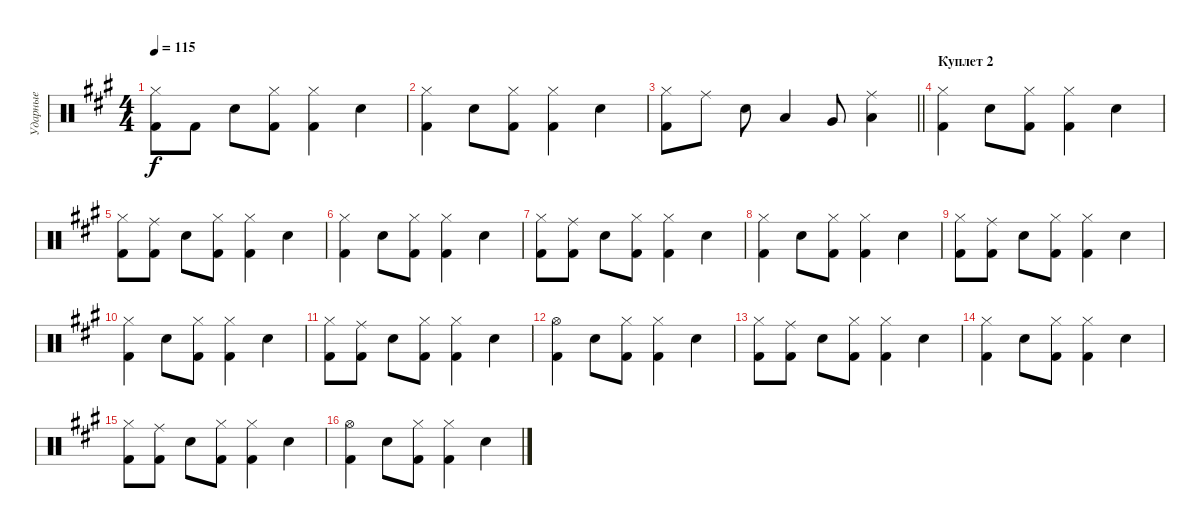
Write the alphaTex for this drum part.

\track ("Ударные" "Ударные") {instrument percussion}
\staff {score}
\articulation defaults
\ts (4 4)
\tempo 115
\clef neutral
\ks f#minor
("Hi-Hat (closed)" "Kick (hit) 2").8{dy f} "Kick (hit) 2".8 "Snare (hit) 2".8 ("Hi-Hat (closed)" "Kick (hit) 2").8{volume 12} ("Hi-Hat (closed)" "Kick (hit) 2").4{volume 11} "Snare (hit) 2".4 |
("Hi-Hat (closed)" "Kick (hit) 2").4 "Snare (hit) 2".8 ("Hi-Hat (closed)" "Kick (hit) 2").8{volume 12} ("Hi-Hat (closed)" "Kick (hit) 2").4{volume 11} "Snare (hit) 2".4 |
\barLineRight lightlight
("Hi-Hat (closed)" "Kick (hit) 2").8 "Ride (middle)".8 "Snare (hit) 2".8 "Low Tom (hit)".4{volume 12} "Very Low Tom (hit)".8{volume 11} ("Ride (middle)" "Low Floor Tom (hit)").4 |
\section ("" "Куплет 2")
("Hi-Hat (closed)" "Kick (hit) 2").4 "Snare (hit) 2".8 ("Hi-Hat (closed)" "Kick (hit) 2").8{volume 12} ("Hi-Hat (closed)" "Kick (hit) 2").4{volume 11} "Snare (hit) 2".4 |
("Hi-Hat (closed)" "Kick (hit) 2").8 ("Ride (middle)" "Kick (hit) 2").8 "Snare (hit) 2".8 ("Hi-Hat (closed)" "Kick (hit) 2").8{volume 12} ("Hi-Hat (closed)" "Kick (hit) 2").4{volume 11} "Snare (hit) 2".4 |
("Hi-Hat (closed)" "Kick (hit) 2").4 "Snare (hit) 2".8 ("Hi-Hat (closed)" "Kick (hit) 2").8{volume 12} ("Hi-Hat (closed)" "Kick (hit) 2").4{volume 11} "Snare (hit) 2".4 |
("Hi-Hat (closed)" "Kick (hit) 2").8 ("Ride (middle)" "Kick (hit) 2").8 "Snare (hit) 2".8 ("Hi-Hat (closed)" "Kick (hit) 2").8{volume 12} ("Hi-Hat (closed)" "Kick (hit) 2").4{volume 11} "Snare (hit) 2".4 |
("Hi-Hat (closed)" "Kick (hit) 2").4 "Snare (hit) 2".8 ("Hi-Hat (closed)" "Kick (hit) 2").8{volume 12} ("Hi-Hat (closed)" "Kick (hit) 2").4{volume 11} "Snare (hit) 2".4 |
("Hi-Hat (closed)" "Kick (hit) 2").8 ("Ride (middle)" "Kick (hit) 2").8 "Snare (hit) 2".8 ("Hi-Hat (closed)" "Kick (hit) 2").8{volume 12} ("Hi-Hat (closed)" "Kick (hit) 2").4{volume 11} "Snare (hit) 2".4 |
("Hi-Hat (closed)" "Kick (hit) 2").4 "Snare (hit) 2".8 ("Hi-Hat (closed)" "Kick (hit) 2").8{volume 12} ("Hi-Hat (closed)" "Kick (hit) 2").4{volume 11} "Snare (hit) 2".4 |
("Hi-Hat (closed)" "Kick (hit) 2").8 ("Ride (middle)" "Kick (hit) 2").8 "Snare (hit) 2".8 ("Hi-Hat (closed)" "Kick (hit) 2").8{volume 12} ("Hi-Hat (closed)" "Kick (hit) 2").4{volume 11} "Snare (hit) 2".4 |
("Hi-Hat (open)" "Kick (hit) 2").4 "Snare (hit) 2".8 ("Hi-Hat (closed)" "Kick (hit) 2").8{volume 12} ("Hi-Hat (closed)" "Kick (hit) 2").4{volume 11} "Snare (hit) 2".4 |
("Hi-Hat (closed)" "Kick (hit) 2").8 ("Ride (middle)" "Kick (hit) 2").8 "Snare (hit) 2".8 ("Hi-Hat (closed)" "Kick (hit) 2").8{volume 12} ("Hi-Hat (closed)" "Kick (hit) 2").4{volume 11} "Snare (hit) 2".4 |
("Hi-Hat (closed)" "Kick (hit) 2").4 "Snare (hit) 2".8 ("Hi-Hat (closed)" "Kick (hit) 2").8{volume 12} ("Hi-Hat (closed)" "Kick (hit) 2").4{volume 11} "Snare (hit) 2".4 |
("Hi-Hat (closed)" "Kick (hit) 2").8 ("Ride (middle)" "Kick (hit) 2").8 "Snare (hit) 2".8 ("Hi-Hat (closed)" "Kick (hit) 2").8{volume 12} ("Hi-Hat (closed)" "Kick (hit) 2").4{volume 11} "Snare (hit) 2".4 |
("Hi-Hat (open)" "Kick (hit) 2").4 "Snare (hit) 2".8 ("Hi-Hat (closed)" "Kick (hit) 2").8{volume 12} ("Hi-Hat (closed)" "Kick (hit) 2").4{volume 11} "Snare (hit) 2".4
